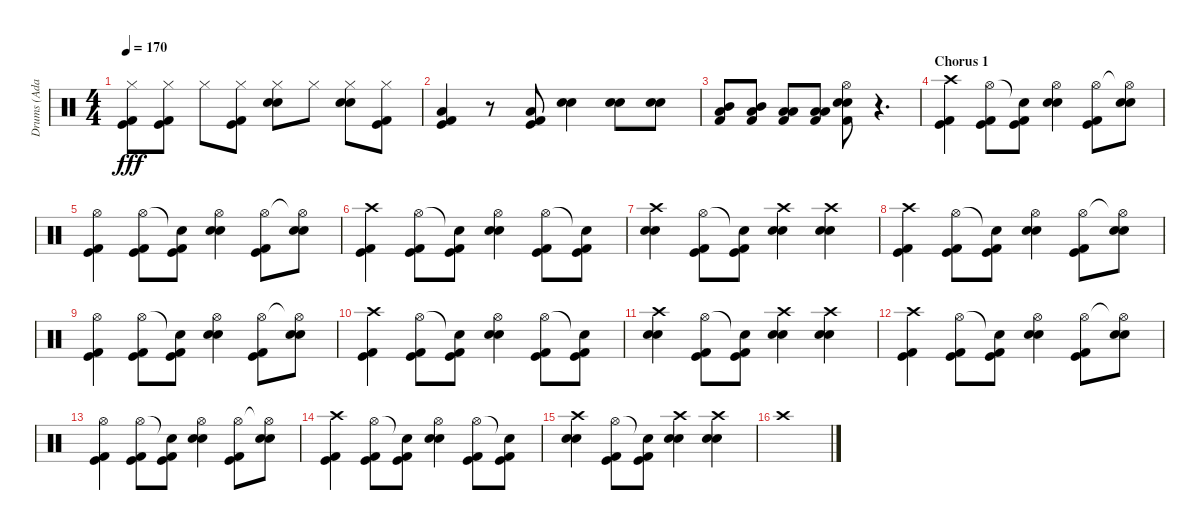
\track ("Drums (Adam)" "Drums (Ada") {instrument percussion}
\staff {score}
\articulation defaults
\ts (4 4)
\tempo 170
\clef neutral
\ks c
("Hi-Hat (closed)" "Kick (hit)" "Kick (hit) 2").8{dy fff} ("Hi-Hat (closed)" "Kick (hit)" "Kick (hit) 2").8 "Hi-Hat (closed)".8 ("Hi-Hat (closed)" "Kick (hit)" "Kick (hit) 2").8 ("Hi-Hat (closed)" "Snare (hit) 2" "Electric Snare (hit)").8 "Hi-Hat (closed)".8 ("Hi-Hat (closed)" "Snare (hit) 2" "Electric Snare (hit)").8 ("Hi-Hat (closed)" "Kick (hit)" "Kick (hit) 2").8 |
("Low Tom (hit)" "Kick (hit)" "Kick (hit) 2").4 r.8 ("Low Tom (hit)" "Kick (hit)" "Kick (hit) 2").8 ("Snare (hit) 2" "Electric Snare (hit)").4 ("Snare (hit) 2" "Electric Snare (hit)").8 ("Snare (hit) 2" "Electric Snare (hit)").8 |
("Mid Tom (hit)" "Low Tom (hit)" "Kick (hit) 2").8 ("Mid Tom (hit)" "Low Tom (hit)" "Kick (hit) 2").8 ("Low Floor Tom (hit)" "Low Tom (hit)" "Kick (hit) 2").8 ("Low Floor Tom (hit)" "Low Tom (hit)" "Kick (hit) 2").8 ("Hi-Hat (open)" "Snare (hit) 2" "Electric Snare (hit)" "Kick (hit) 2").8 r.4{d} |
\section ("" "Chorus 1")
("Crash high (hit)" "Kick (hit)" "Kick (hit) 2").4 ("Hi-Hat (open)" "Kick (hit)" "Kick (hit) 2").8 ("Snare (hit)"{t} "Kick (hit)" "Kick (hit) 2").8 ("Hi-Hat (open)" "Snare (hit) 2" "Electric Snare (hit)").4 ("Hi-Hat (open)" "Kick (hit)" "Kick (hit) 2").8 ("Hi-Hat (open)"{t} "Snare (hit) 2" "Electric Snare (hit)").8 |
("Hi-Hat (open)" "Kick (hit)" "Kick (hit) 2").4 ("Hi-Hat (open)" "Kick (hit)" "Kick (hit) 2").8 ("Snare (hit)"{t} "Kick (hit)" "Kick (hit) 2").8 ("Hi-Hat (open)" "Snare (hit) 2" "Electric Snare (hit)").4 ("Hi-Hat (open)" "Kick (hit)" "Kick (hit) 2").8 ("Hi-Hat (open)"{t} "Snare (hit) 2" "Electric Snare (hit)").8 |
("Crash high (hit)" "Kick (hit)" "Kick (hit) 2").4 ("Hi-Hat (open)" "Kick (hit)" "Kick (hit) 2").8 ("Snare (hit)"{t} "Kick (hit)" "Kick (hit) 2").8 ("Hi-Hat (open)" "Snare (hit) 2" "Electric Snare (hit)").4 ("Hi-Hat (open)" "Kick (hit)" "Kick (hit) 2").8 ("Snare (hit)"{t} "Kick (hit)" "Kick (hit) 2").8 |
("Crash high (hit)" "Snare (hit) 2" "Electric Snare (hit)").4 ("Hi-Hat (open)" "Kick (hit)" "Kick (hit) 2").8 ("Snare (hit)"{t} "Kick (hit)" "Kick (hit) 2").8 ("Crash high (hit)" "Snare (hit) 2" "Electric Snare (hit)").4 ("Crash high (hit)" "Snare (hit) 2" "Electric Snare (hit)").4 |
("Crash high (hit)" "Kick (hit)" "Kick (hit) 2").4 ("Hi-Hat (open)" "Kick (hit)" "Kick (hit) 2").8 ("Snare (hit)"{t} "Kick (hit)" "Kick (hit) 2").8 ("Hi-Hat (open)" "Snare (hit) 2" "Electric Snare (hit)").4 ("Hi-Hat (open)" "Kick (hit)" "Kick (hit) 2").8 ("Hi-Hat (open)"{t} "Snare (hit) 2" "Electric Snare (hit)").8 |
("Hi-Hat (open)" "Kick (hit)" "Kick (hit) 2").4 ("Hi-Hat (open)" "Kick (hit)" "Kick (hit) 2").8 ("Snare (hit)"{t} "Kick (hit)" "Kick (hit) 2").8 ("Hi-Hat (open)" "Snare (hit) 2" "Electric Snare (hit)").4 ("Hi-Hat (open)" "Kick (hit)" "Kick (hit) 2").8 ("Hi-Hat (open)"{t} "Snare (hit) 2" "Electric Snare (hit)").8 |
("Crash high (hit)" "Kick (hit)" "Kick (hit) 2").4 ("Hi-Hat (open)" "Kick (hit)" "Kick (hit) 2").8 ("Snare (hit)"{t} "Kick (hit)" "Kick (hit) 2").8 ("Hi-Hat (open)" "Snare (hit) 2" "Electric Snare (hit)").4 ("Hi-Hat (open)" "Kick (hit)" "Kick (hit) 2").8 ("Snare (hit)"{t} "Kick (hit)" "Kick (hit) 2").8 |
("Crash high (hit)" "Snare (hit) 2" "Electric Snare (hit)").4 ("Hi-Hat (open)" "Kick (hit)" "Kick (hit) 2").8 ("Snare (hit)"{t} "Kick (hit)" "Kick (hit) 2").8 ("Crash high (hit)" "Snare (hit) 2" "Electric Snare (hit)").4 ("Crash high (hit)" "Snare (hit) 2" "Electric Snare (hit)").4 |
("Crash high (hit)" "Kick (hit)" "Kick (hit) 2").4 ("Hi-Hat (open)" "Kick (hit)" "Kick (hit) 2").8 ("Snare (hit)"{t} "Kick (hit)" "Kick (hit) 2").8 ("Hi-Hat (open)" "Snare (hit) 2" "Electric Snare (hit)").4 ("Hi-Hat (open)" "Kick (hit)" "Kick (hit) 2").8 ("Hi-Hat (open)"{t} "Snare (hit) 2" "Electric Snare (hit)").8 |
("Hi-Hat (open)" "Kick (hit)" "Kick (hit) 2").4 ("Hi-Hat (open)" "Kick (hit)" "Kick (hit) 2").8 ("Snare (hit)"{t} "Kick (hit)" "Kick (hit) 2").8 ("Hi-Hat (open)" "Snare (hit) 2" "Electric Snare (hit)").4 ("Hi-Hat (open)" "Kick (hit)" "Kick (hit) 2").8 ("Hi-Hat (open)"{t} "Snare (hit) 2" "Electric Snare (hit)").8 |
("Crash high (hit)" "Kick (hit)" "Kick (hit) 2").4 ("Hi-Hat (open)" "Kick (hit)" "Kick (hit) 2").8 ("Snare (hit)"{t} "Kick (hit)" "Kick (hit) 2").8 ("Hi-Hat (open)" "Snare (hit) 2" "Electric Snare (hit)").4 ("Hi-Hat (open)" "Kick (hit)" "Kick (hit) 2").8 ("Snare (hit)"{t} "Kick (hit)" "Kick (hit) 2").8 |
("Crash high (hit)" "Snare (hit) 2" "Electric Snare (hit)").4 ("Hi-Hat (open)" "Kick (hit)" "Kick (hit) 2").8 ("Snare (hit)"{t} "Kick (hit)" "Kick (hit) 2").8 ("Crash high (hit)" "Snare (hit) 2" "Electric Snare (hit)").4 ("Crash high (hit)" "Snare (hit) 2" "Electric Snare (hit)").4 |
"Crash high (hit)".1
